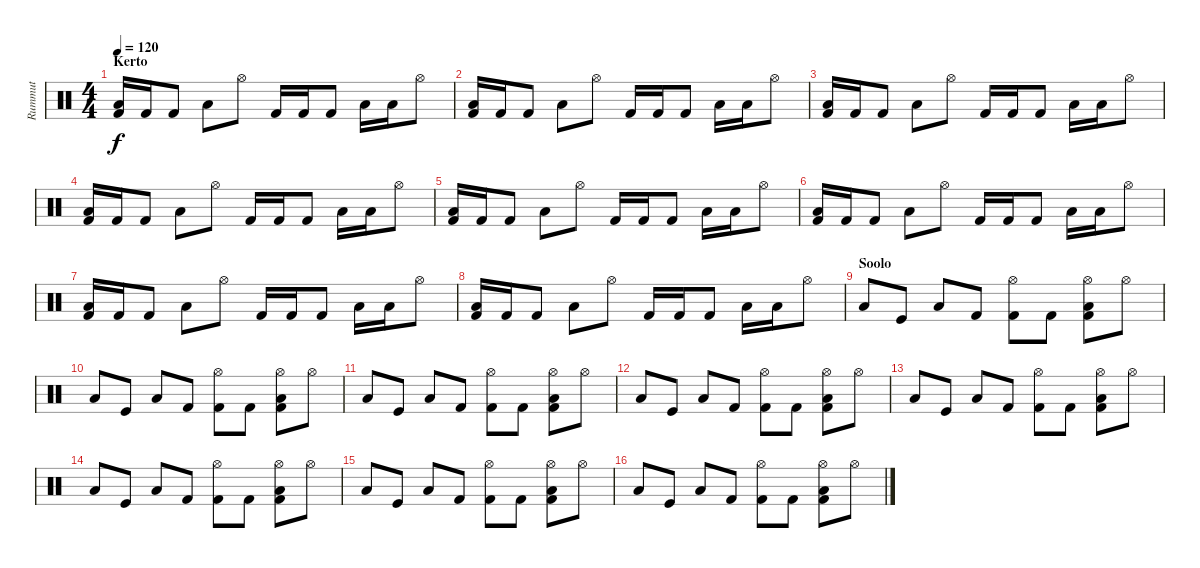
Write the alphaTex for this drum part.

\track ("Rummut" "Rummut") {instrument percussion}
\staff {score}
\articulation defaults
\ts (4 4)
\section ("" "Kerto")
\tempo 120
\clef neutral
\ks c
("Kick (hit) 2" "Low Tom (hit)").16{dy f} "Kick (hit) 2".16 "Kick (hit) 2".8 "Low Tom (hit)".8 "Hi-Hat (open)".8 "Kick (hit) 2".16 "Kick (hit) 2".16 "Kick (hit) 2".8 "Low Tom (hit)".16 "Low Tom (hit)".16 "Hi-Hat (open)".8 |
("Kick (hit) 2" "Low Tom (hit)").16 "Kick (hit) 2".16 "Kick (hit) 2".8 "Low Tom (hit)".8 "Hi-Hat (open)".8 "Kick (hit) 2".16 "Kick (hit) 2".16 "Kick (hit) 2".8 "Low Tom (hit)".16 "Low Tom (hit)".16 "Hi-Hat (open)".8 |
("Kick (hit) 2" "Low Tom (hit)").16 "Kick (hit) 2".16 "Kick (hit) 2".8 "Low Tom (hit)".8 "Hi-Hat (open)".8 "Kick (hit) 2".16 "Kick (hit) 2".16 "Kick (hit) 2".8 "Low Tom (hit)".16 "Low Tom (hit)".16 "Hi-Hat (open)".8 |
("Kick (hit) 2" "Low Tom (hit)").16 "Kick (hit) 2".16 "Kick (hit) 2".8 "Low Tom (hit)".8 "Hi-Hat (open)".8 "Kick (hit) 2".16 "Kick (hit) 2".16 "Kick (hit) 2".8 "Low Tom (hit)".16 "Low Tom (hit)".16 "Hi-Hat (open)".8 |
("Kick (hit) 2" "Low Tom (hit)").16 "Kick (hit) 2".16 "Kick (hit) 2".8 "Low Tom (hit)".8 "Hi-Hat (open)".8 "Kick (hit) 2".16 "Kick (hit) 2".16 "Kick (hit) 2".8 "Low Tom (hit)".16 "Low Tom (hit)".16 "Hi-Hat (open)".8 |
("Kick (hit) 2" "Low Tom (hit)").16 "Kick (hit) 2".16 "Kick (hit) 2".8 "Low Tom (hit)".8 "Hi-Hat (open)".8 "Kick (hit) 2".16 "Kick (hit) 2".16 "Kick (hit) 2".8 "Low Tom (hit)".16 "Low Tom (hit)".16 "Hi-Hat (open)".8 |
("Kick (hit) 2" "Low Tom (hit)").16 "Kick (hit) 2".16 "Kick (hit) 2".8 "Low Tom (hit)".8 "Hi-Hat (open)".8 "Kick (hit) 2".16 "Kick (hit) 2".16 "Kick (hit) 2".8 "Low Tom (hit)".16 "Low Tom (hit)".16 "Hi-Hat (open)".8 |
("Kick (hit) 2" "Low Tom (hit)").16 "Kick (hit) 2".16 "Kick (hit) 2".8 "Low Tom (hit)".8 "Hi-Hat (open)".8 "Kick (hit) 2".16 "Kick (hit) 2".16 "Kick (hit) 2".8 "Low Tom (hit)".16 "Low Tom (hit)".16 "Hi-Hat (open)".8 |
\section ("" "Soolo")
"Low Tom (hit)".8 "Kick (hit)".8 "Low Tom (hit)".8 "Kick (hit) 2".8 ("Hi-Hat (open)" "Kick (hit) 2").8 "Kick (hit) 2".8 ("Hi-Hat (open)" "Kick (hit) 2" "Low Tom (hit)").8 "Hi-Hat (open)".8 |
"Low Tom (hit)".8 "Kick (hit)".8 "Low Tom (hit)".8 "Kick (hit) 2".8 ("Hi-Hat (open)" "Kick (hit) 2").8 "Kick (hit) 2".8 ("Hi-Hat (open)" "Kick (hit) 2" "Low Tom (hit)").8 "Hi-Hat (open)".8 |
"Low Tom (hit)".8 "Kick (hit)".8 "Low Tom (hit)".8 "Kick (hit) 2".8 ("Hi-Hat (open)" "Kick (hit) 2").8 "Kick (hit) 2".8 ("Hi-Hat (open)" "Kick (hit) 2" "Low Tom (hit)").8 "Hi-Hat (open)".8 |
"Low Tom (hit)".8 "Kick (hit)".8 "Low Tom (hit)".8 "Kick (hit) 2".8 ("Hi-Hat (open)" "Kick (hit) 2").8 "Kick (hit) 2".8 ("Hi-Hat (open)" "Kick (hit) 2" "Low Tom (hit)").8 "Hi-Hat (open)".8 |
"Low Tom (hit)".8 "Kick (hit)".8 "Low Tom (hit)".8 "Kick (hit) 2".8 ("Hi-Hat (open)" "Kick (hit) 2").8 "Kick (hit) 2".8 ("Hi-Hat (open)" "Kick (hit) 2" "Low Tom (hit)").8 "Hi-Hat (open)".8 |
"Low Tom (hit)".8 "Kick (hit)".8 "Low Tom (hit)".8 "Kick (hit) 2".8 ("Hi-Hat (open)" "Kick (hit) 2").8 "Kick (hit) 2".8 ("Hi-Hat (open)" "Kick (hit) 2" "Low Tom (hit)").8 "Hi-Hat (open)".8 |
"Low Tom (hit)".8 "Kick (hit)".8 "Low Tom (hit)".8 "Kick (hit) 2".8 ("Hi-Hat (open)" "Kick (hit) 2").8 "Kick (hit) 2".8 ("Hi-Hat (open)" "Kick (hit) 2" "Low Tom (hit)").8 "Hi-Hat (open)".8 |
"Low Tom (hit)".8 "Kick (hit)".8 "Low Tom (hit)".8 "Kick (hit) 2".8 ("Hi-Hat (open)" "Kick (hit) 2").8 "Kick (hit) 2".8 ("Hi-Hat (open)" "Kick (hit) 2" "Low Tom (hit)").8 "Hi-Hat (open)".8
